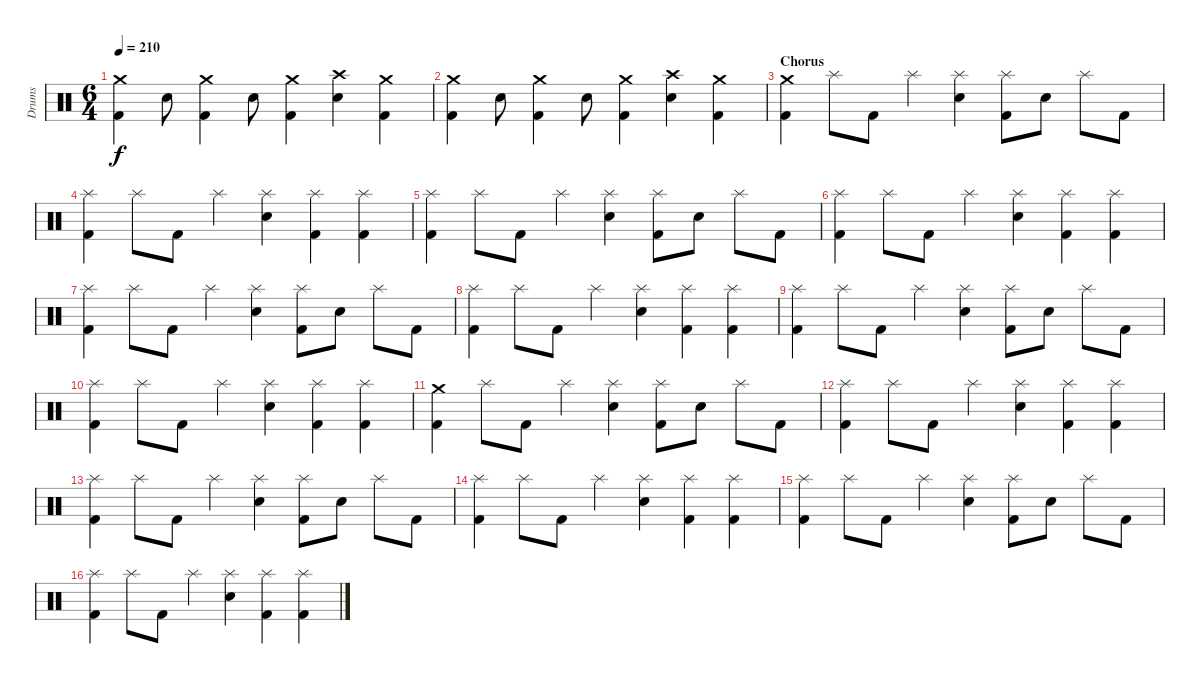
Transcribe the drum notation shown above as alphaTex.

\track ("Drums" "Drums") {instrument percussion}
\staff {score}
\articulation defaults
\ts (6 4)
\tempo 210
\clef neutral
\ks c
("Crash medium (hit)" "Kick (hit) 2").4{dy f} "Electric Snare (hit)".8 ("Crash medium (hit)" "Kick (hit) 2").4 "Electric Snare (hit)".8 ("Crash medium (hit)" "Kick (hit) 2").4 ("Crash high (hit)" "Electric Snare (hit)").4 ("Crash medium (hit)" "Kick (hit) 2").4 |
("Crash medium (hit)" "Kick (hit) 2").4 "Electric Snare (hit)".8 ("Crash medium (hit)" "Kick (hit) 2").4 "Electric Snare (hit)".8 ("Crash medium (hit)" "Kick (hit) 2").4 ("Crash high (hit)" "Electric Snare (hit)").4 ("Crash medium (hit)" "Kick (hit) 2").4 |
\section ("" "Chorus")
("Crash medium (hit)" "Kick (hit) 2").4 "Splash (hit)".8 "Kick (hit) 2".8 "Splash (hit)".4 ("Splash (hit)" "Electric Snare (hit)").4 ("Splash (hit)" "Kick (hit) 2").8 "Electric Snare (hit)".8 "Splash (hit)".8 "Kick (hit) 2".8 |
("Splash (hit)" "Kick (hit) 2").4 "Splash (hit)".8 "Kick (hit) 2".8 "Splash (hit)".4 ("Splash (hit)" "Electric Snare (hit)").4 ("Splash (hit)" "Kick (hit) 2").4 ("Splash (hit)" "Kick (hit) 2").4 |
("Splash (hit)" "Kick (hit) 2").4 "Splash (hit)".8 "Kick (hit) 2".8 "Splash (hit)".4 ("Splash (hit)" "Electric Snare (hit)").4 ("Splash (hit)" "Kick (hit) 2").8 "Electric Snare (hit)".8 "Splash (hit)".8 "Kick (hit) 2".8 |
("Splash (hit)" "Kick (hit) 2").4 "Splash (hit)".8 "Kick (hit) 2".8 "Splash (hit)".4 ("Splash (hit)" "Electric Snare (hit)").4 ("Splash (hit)" "Kick (hit) 2").4 ("Splash (hit)" "Kick (hit) 2").4 |
("Splash (hit)" "Kick (hit) 2").4 "Splash (hit)".8 "Kick (hit) 2".8 "Splash (hit)".4 ("Splash (hit)" "Electric Snare (hit)").4 ("Splash (hit)" "Kick (hit) 2").8 "Electric Snare (hit)".8 "Splash (hit)".8 "Kick (hit) 2".8 |
("Splash (hit)" "Kick (hit) 2").4 "Splash (hit)".8 "Kick (hit) 2".8 "Splash (hit)".4 ("Splash (hit)" "Electric Snare (hit)").4 ("Splash (hit)" "Kick (hit) 2").4 ("Splash (hit)" "Kick (hit) 2").4 |
("Splash (hit)" "Kick (hit) 2").4 "Splash (hit)".8 "Kick (hit) 2".8 "Splash (hit)".4 ("Splash (hit)" "Electric Snare (hit)").4 ("Splash (hit)" "Kick (hit) 2").8 "Electric Snare (hit)".8 "Splash (hit)".8 "Kick (hit) 2".8 |
("Splash (hit)" "Kick (hit) 2").4 "Splash (hit)".8 "Kick (hit) 2".8 "Splash (hit)".4 ("Splash (hit)" "Electric Snare (hit)").4 ("Splash (hit)" "Kick (hit) 2").4 ("Splash (hit)" "Kick (hit) 2").4 |
("Crash medium (hit)" "Kick (hit) 2").4 "Splash (hit)".8 "Kick (hit) 2".8 "Splash (hit)".4 ("Splash (hit)" "Electric Snare (hit)").4 ("Splash (hit)" "Kick (hit) 2").8 "Electric Snare (hit)".8 "Splash (hit)".8 "Kick (hit) 2".8 |
("Splash (hit)" "Kick (hit) 2").4 "Splash (hit)".8 "Kick (hit) 2".8 "Splash (hit)".4 ("Splash (hit)" "Electric Snare (hit)").4 ("Splash (hit)" "Kick (hit) 2").4 ("Splash (hit)" "Kick (hit) 2").4 |
("Splash (hit)" "Kick (hit) 2").4 "Splash (hit)".8 "Kick (hit) 2".8 "Splash (hit)".4 ("Splash (hit)" "Electric Snare (hit)").4 ("Splash (hit)" "Kick (hit) 2").8 "Electric Snare (hit)".8 "Splash (hit)".8 "Kick (hit) 2".8 |
("Splash (hit)" "Kick (hit) 2").4 "Splash (hit)".8 "Kick (hit) 2".8 "Splash (hit)".4 ("Splash (hit)" "Electric Snare (hit)").4 ("Splash (hit)" "Kick (hit) 2").4 ("Splash (hit)" "Kick (hit) 2").4 |
("Splash (hit)" "Kick (hit) 2").4 "Splash (hit)".8 "Kick (hit) 2".8 "Splash (hit)".4 ("Splash (hit)" "Electric Snare (hit)").4 ("Splash (hit)" "Kick (hit) 2").8 "Electric Snare (hit)".8 "Splash (hit)".8 "Kick (hit) 2".8 |
("Splash (hit)" "Kick (hit) 2").4 "Splash (hit)".8 "Kick (hit) 2".8 "Splash (hit)".4 ("Splash (hit)" "Electric Snare (hit)").4 ("Splash (hit)" "Kick (hit) 2").4 ("Splash (hit)" "Kick (hit) 2").4
